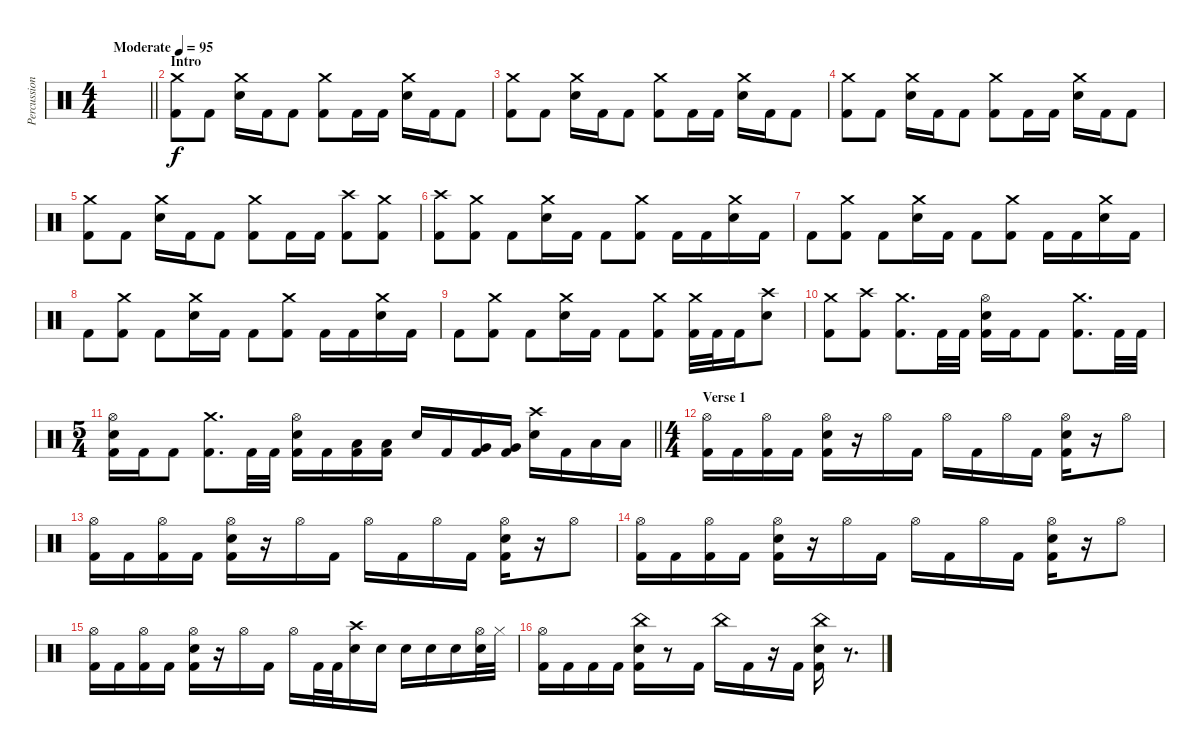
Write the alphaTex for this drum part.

\track ("Percussion" "Percussion") {instrument percussion}
\staff {score}
\articulation defaults
\ts (4 4)
\tempo (95 "Moderate")
\clef neutral
\barLineRight lightlight
\ks c
|
\section ("" "Intro")
("Crash medium (hit)" "Kick (hit) 2").8 "Kick (hit) 2".8 ("Crash medium (hit)" "Electric Snare (hit)").16 "Kick (hit) 2".16 "Kick (hit) 2".8 ("Crash medium (hit)" "Kick (hit) 2").8 "Kick (hit) 2".16 "Kick (hit) 2".16 ("Crash medium (hit)" "Electric Snare (hit)").16 "Kick (hit) 2".16 "Kick (hit) 2".8 |
("Crash medium (hit)" "Kick (hit) 2").8 "Kick (hit) 2".8 ("Crash medium (hit)" "Electric Snare (hit)").16 "Kick (hit) 2".16 "Kick (hit) 2".8 ("Crash medium (hit)" "Kick (hit) 2").8 "Kick (hit) 2".16 "Kick (hit) 2".16 ("Crash medium (hit)" "Electric Snare (hit)").16 "Kick (hit) 2".16 "Kick (hit) 2".8 |
("Crash medium (hit)" "Kick (hit) 2").8 "Kick (hit) 2".8 ("Crash medium (hit)" "Electric Snare (hit)").16 "Kick (hit) 2".16 "Kick (hit) 2".8 ("Crash medium (hit)" "Kick (hit) 2").8 "Kick (hit) 2".16 "Kick (hit) 2".16 ("Crash medium (hit)" "Electric Snare (hit)").16 "Kick (hit) 2".16 "Kick (hit) 2".8 |
("Crash medium (hit)" "Kick (hit) 2").8 "Kick (hit) 2".8 ("Crash medium (hit)" "Electric Snare (hit)").16 "Kick (hit) 2".16 "Kick (hit) 2".8 ("Crash medium (hit)" "Kick (hit) 2").8 "Kick (hit) 2".16 "Kick (hit) 2".16 ("Crash high (hit)" "Kick (hit) 2").8 ("Crash medium (hit)" "Kick (hit) 2").8 |
("Crash high (hit)" "Kick (hit) 2").8 ("Crash medium (hit)" "Kick (hit) 2").8 "Kick (hit) 2".8 ("Crash medium (hit)" "Electric Snare (hit)").16 "Kick (hit) 2".16 "Kick (hit) 2".8 ("Crash medium (hit)" "Kick (hit) 2").8 "Kick (hit) 2".16 "Kick (hit) 2".16 ("Crash medium (hit)" "Electric Snare (hit)").16 "Kick (hit) 2".16 |
"Kick (hit) 2".8 ("Crash medium (hit)" "Kick (hit) 2").8 "Kick (hit) 2".8 ("Crash medium (hit)" "Electric Snare (hit)").16 "Kick (hit) 2".16 "Kick (hit) 2".8 ("Crash medium (hit)" "Kick (hit) 2").8 "Kick (hit) 2".16 "Kick (hit) 2".16 ("Crash medium (hit)" "Electric Snare (hit)").16 "Kick (hit) 2".16 |
"Kick (hit) 2".8 ("Crash medium (hit)" "Kick (hit) 2").8 "Kick (hit) 2".8 ("Crash medium (hit)" "Electric Snare (hit)").16 "Kick (hit) 2".16 "Kick (hit) 2".8 ("Crash medium (hit)" "Kick (hit) 2").8 "Kick (hit) 2".16 "Kick (hit) 2".16 ("Crash medium (hit)" "Electric Snare (hit)").16 "Kick (hit) 2".16 |
"Kick (hit) 2".8 ("Crash medium (hit)" "Kick (hit) 2").8 "Kick (hit) 2".8 ("Crash medium (hit)" "Electric Snare (hit)").16 "Kick (hit) 2".16 "Kick (hit) 2".8 ("Crash medium (hit)" "Kick (hit) 2").8 ("Crash medium (hit)" "Kick (hit) 2").32 "Kick (hit) 2".32 "Kick (hit) 2".16 ("Crash high (hit)" "Electric Snare (hit)").8 |
("Crash medium (hit)" "Kick (hit) 2").8 ("Crash high (hit)" "Kick (hit) 2").8 ("Crash medium (hit)" "Kick (hit) 2").8{d} "Kick (hit) 2".32 "Kick (hit) 2".32 ("Hi-Hat (open)" "Electric Snare (hit)" "Kick (hit) 2").16 "Kick (hit) 2".16 "Kick (hit) 2".8 ("Crash medium (hit)" "Kick (hit) 2").8{d} "Kick (hit) 2".32 "Kick (hit) 2".32 |
\ts (5 4)
\barLineRight lightlight
("Hi-Hat (open)" "Electric Snare (hit)" "Kick (hit) 2").16 "Kick (hit) 2".16 "Kick (hit) 2".8 ("Crash medium (hit)" "Kick (hit) 2").8{d} "Kick (hit) 2".32 "Kick (hit) 2".32 ("Hi-Hat (open)" "Electric Snare (hit)" "Kick (hit) 2").16 "Kick (hit) 2".16 ("Low Tom (hit)" "Kick (hit) 2").16 ("Low Tom (hit)" "Kick (hit) 2").16 "Electric Snare (hit)".16 "Kick (hit) 2".16 ("Very Low Tom (hit)" "Kick (hit) 2").16 ("Very Low Tom (hit)" "Kick (hit) 2").16 ("Crash high (hit)" "Electric Snare (hit)").16 "Kick (hit) 2".16 "Low Floor Tom (hit)".16 "Low Floor Tom (hit)".16 |
\ts (4 4)
\section ("" "Verse 1")
("Hi-Hat (open)" "Kick (hit) 2").16 "Kick (hit) 2".16 ("Hi-Hat (open)" "Kick (hit) 2").16 "Kick (hit) 2".16 ("Hi-Hat (open)" "Electric Snare (hit)" "Kick (hit) 2").16 r.16 "Hi-Hat (open)".16 "Kick (hit) 2".16 "Hi-Hat (open)".16 "Kick (hit) 2".16 "Hi-Hat (open)".16 "Kick (hit) 2".16 ("Hi-Hat (open)" "Electric Snare (hit)" "Kick (hit) 2").16 r.16 "Hi-Hat (open)".8 |
("Hi-Hat (open)" "Kick (hit) 2").16 "Kick (hit) 2".16 ("Hi-Hat (open)" "Kick (hit) 2").16 "Kick (hit) 2".16 ("Hi-Hat (open)" "Electric Snare (hit)" "Kick (hit) 2").16 r.16 "Hi-Hat (open)".16 "Kick (hit) 2".16 "Hi-Hat (open)".16 "Kick (hit) 2".16 "Hi-Hat (open)".16 "Kick (hit) 2".16 ("Hi-Hat (open)" "Electric Snare (hit)" "Kick (hit) 2").16 r.16 "Hi-Hat (open)".8 |
("Hi-Hat (open)" "Kick (hit) 2").16 "Kick (hit) 2".16 ("Hi-Hat (open)" "Kick (hit) 2").16 "Kick (hit) 2".16 ("Hi-Hat (open)" "Electric Snare (hit)" "Kick (hit) 2").16 r.16 "Hi-Hat (open)".16 "Kick (hit) 2".16 "Hi-Hat (open)".16 "Kick (hit) 2".16 "Hi-Hat (open)".16 "Kick (hit) 2".16 ("Hi-Hat (open)" "Electric Snare (hit)" "Kick (hit) 2").16 r.16 "Hi-Hat (open)".8 |
("Hi-Hat (open)" "Kick (hit) 2").16 "Kick (hit) 2".16 ("Hi-Hat (open)" "Kick (hit) 2").16 "Kick (hit) 2".16 ("Hi-Hat (open)" "Electric Snare (hit)" "Kick (hit) 2").16 r.16 "Hi-Hat (open)".16 "Kick (hit) 2".16 "Hi-Hat (open)".16 "Kick (hit) 2".32 "Kick (hit) 2".32 ("Crash high (hit)" "Electric Snare (hit)").16 "Electric Snare (hit)".16 "Electric Snare (hit)".16 "Electric Snare (hit)".16 "Electric Snare (hit)".16 ("Hi-Hat (open)" "Electric Snare (hit)").32 "Hi-Hat (closed)".32 |
("Hi-Hat (open)" "Kick (hit) 2").16 "Kick (hit) 2".16 "Kick (hit) 2".16 "Kick (hit) 2".16 ("China (hit)" "Electric Snare (hit)" "Kick (hit) 2").16 r.8 "Kick (hit) 2".16 "China (hit)".16 "Kick (hit) 2".16 r.16 "Kick (hit) 2".16 ("China (hit)" "Electric Snare (hit)" "Kick (hit) 2").16 r.8{d}
